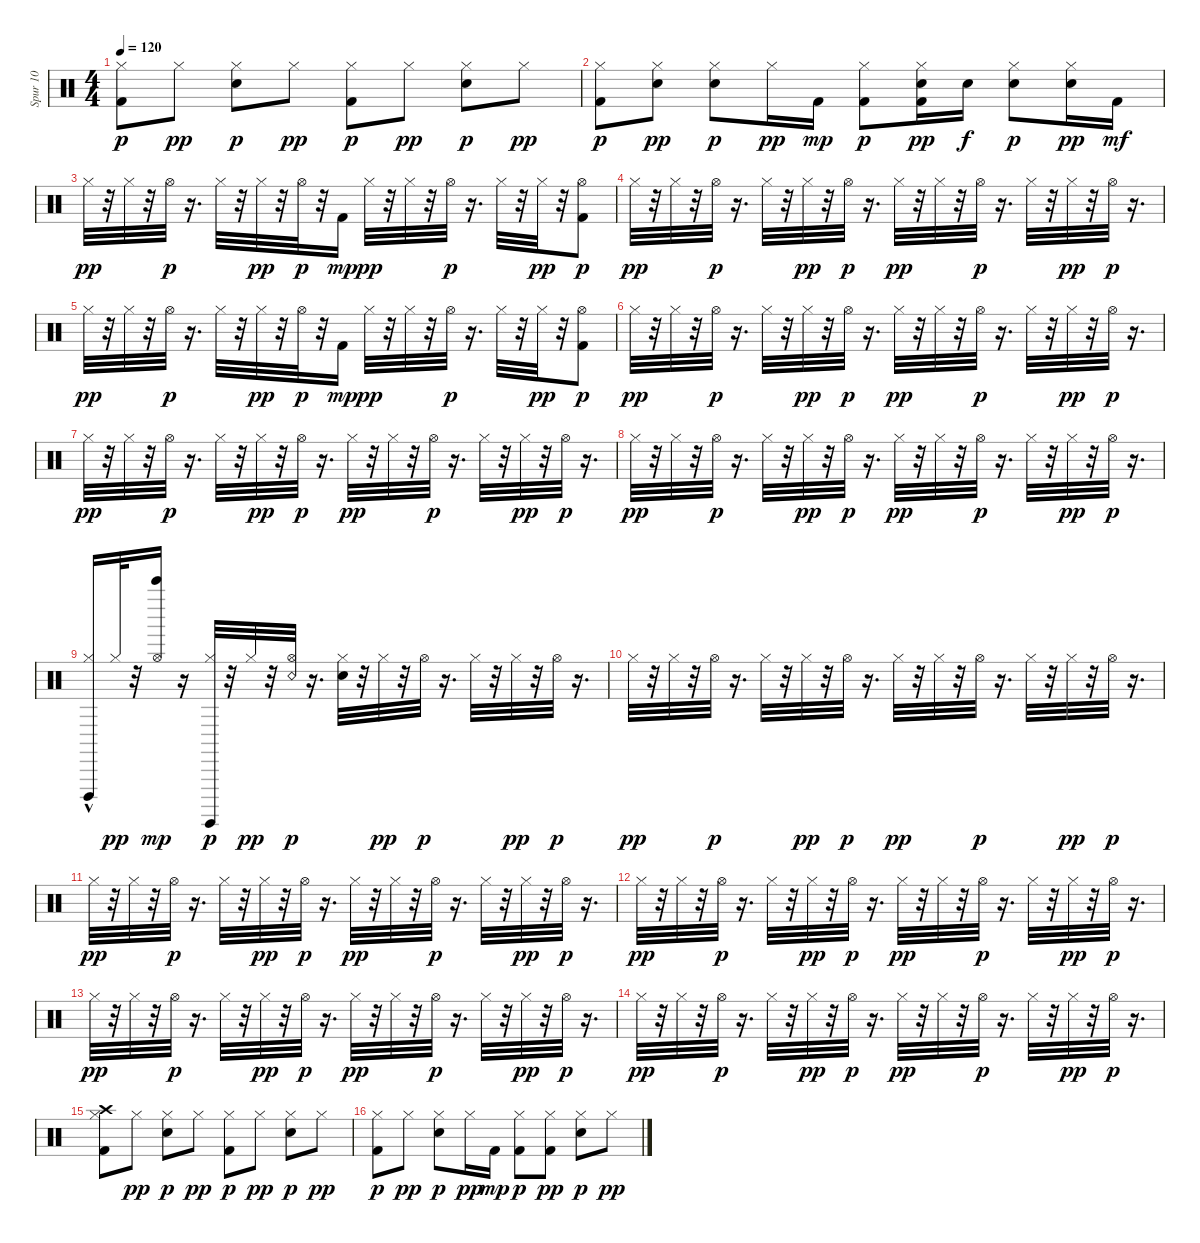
\track ("Spur 10" "Spur 10") {instrument percussion}
\staff {score}
\articulation defaults
\ts (4 4)
\tempo 120
\clef neutral
\ks c
("Kick (hit) 2" "Hi-Hat (closed)").8{dy p} "Hi-Hat (closed)".8{dy pp} ("Snare (hit) 2" "Hi-Hat (closed)").8{dy p} "Hi-Hat (closed)".8{dy pp} ("Kick (hit) 2" "Hi-Hat (closed)").8{dy p} "Hi-Hat (closed)".8{dy pp} ("Snare (hit) 2" "Hi-Hat (closed)").8{dy p} "Hi-Hat (closed)".8{dy pp} |
("Kick (hit) 2" "Hi-Hat (closed)").8{dy p} ("Snare (hit) 2" "Hi-Hat (closed)").8{dy pp} ("Snare (hit) 2" "Hi-Hat (closed)").8{dy p} "Hi-Hat (closed)".16{dy pp} "Kick (hit) 2".16{dy mp} ("Kick (hit) 2" "Hi-Hat (closed)").8{dy p} ("Kick (hit) 2" "Snare (hit) 2" "Hi-Hat (closed)").16{dy pp} "Snare (hit) 2".16{dy f} ("Snare (hit) 2" "Hi-Hat (closed)").8{dy p} ("Snare (hit) 2" "Hi-Hat (closed)").16{dy pp} "Kick (hit) 2".16{dy mf} |
"Hi-Hat (closed)".32{dy pp} r.32 "Hi-Hat (closed)".32 r.32 "Hi-Hat (open)".32{dy p} r.16{d} "Hi-Hat (closed)".32 r.32 "Hi-Hat (closed)".32{dy pp} r.32 "Hi-Hat (open)".32{dy p} r.32 "Kick (hit) 2".16{dy mp} "Hi-Hat (closed)".32{dy pp} r.32 "Hi-Hat (closed)".32 r.32 "Hi-Hat (open)".32{dy p} r.16{d} "Hi-Hat (closed)".32 r.32 "Hi-Hat (closed)".32{dy pp} r.32 ("Kick (hit) 2" "Hi-Hat (open)").8{dy p} |
"Hi-Hat (closed)".32{dy pp} r.32 "Hi-Hat (closed)".32 r.32 "Hi-Hat (open)".32{dy p} r.16{d} "Hi-Hat (closed)".32 r.32 "Hi-Hat (closed)".32{dy pp} r.32 "Hi-Hat (open)".32{dy p} r.16{d} "Hi-Hat (closed)".32{dy pp} r.32 "Hi-Hat (closed)".32 r.32 "Hi-Hat (open)".32{dy p} r.16{d} "Hi-Hat (closed)".32 r.32 "Hi-Hat (closed)".32{dy pp} r.32 "Hi-Hat (open)".32{dy p} r.16{d} |
"Hi-Hat (closed)".32{dy pp} r.32 "Hi-Hat (closed)".32 r.32 "Hi-Hat (open)".32{dy p} r.16{d} "Hi-Hat (closed)".32 r.32 "Hi-Hat (closed)".32{dy pp} r.32 "Hi-Hat (open)".32{dy p} r.32 "Kick (hit) 2".16{dy mp} "Hi-Hat (closed)".32{dy pp} r.32 "Hi-Hat (closed)".32 r.32 "Hi-Hat (open)".32{dy p} r.16{d} "Hi-Hat (closed)".32 r.32 "Hi-Hat (closed)".32{dy pp} r.32 ("Kick (hit) 2" "Hi-Hat (open)").8{dy p} |
"Hi-Hat (closed)".32{dy pp} r.32 "Hi-Hat (closed)".32 r.32 "Hi-Hat (open)".32{dy p} r.16{d} "Hi-Hat (closed)".32 r.32 "Hi-Hat (closed)".32{dy pp} r.32 "Hi-Hat (open)".32{dy p} r.16{d} "Hi-Hat (closed)".32{dy pp} r.32 "Hi-Hat (closed)".32 r.32 "Hi-Hat (open)".32{dy p} r.16{d} "Hi-Hat (closed)".32 r.32 "Hi-Hat (closed)".32{dy pp} r.32 "Hi-Hat (open)".32{dy p} r.16{d} |
"Hi-Hat (closed)".32{dy pp} r.32 "Hi-Hat (closed)".32 r.32 "Hi-Hat (open)".32{dy p} r.16{d} "Hi-Hat (closed)".32 r.32 "Hi-Hat (closed)".32{dy pp} r.32 "Hi-Hat (open)".32{dy p} r.16{d} "Hi-Hat (closed)".32{dy pp} r.32 "Hi-Hat (closed)".32 r.32 "Hi-Hat (open)".32{dy p} r.16{d} "Hi-Hat (closed)".32 r.32 "Hi-Hat (closed)".32{dy pp} r.32 "Hi-Hat (open)".32{dy p} r.16{d} |
"Hi-Hat (closed)".32{dy pp} r.32 "Hi-Hat (closed)".32 r.32 "Hi-Hat (open)".32{dy p} r.16{d} "Hi-Hat (closed)".32 r.32 "Hi-Hat (closed)".32{dy pp} r.32 "Hi-Hat (open)".32{dy p} r.16{d} "Hi-Hat (closed)".32{dy pp} r.32 "Hi-Hat (closed)".32 r.32 "Hi-Hat (open)".32{dy p} r.16{d} "Hi-Hat (closed)".32 r.32 "Hi-Hat (closed)".32{dy pp} r.32 "Hi-Hat (open)".32{dy p} r.16{d} |
("Hi-Hat (closed)" "Cuica (open)"{hac}).16 "Hi-Hat (closed)".32{dy pp} r.32 ("Hi-Hat (open)" "Bell Tree (hit)").16{dy mp} r.16 ("Hi-Hat (closed)" "Surdo (hit)").32{dy p} r.32 "Hi-Hat (closed)".32{dy pp} r.32 ("Hi-Hat (open)" "Snare (rim shot)").32{dy p} r.16{d} ("Hi-Hat (closed)" "Snare (hit)").32 r.32 "Hi-Hat (closed)".32{dy pp} r.32 "Hi-Hat (open)".32{dy p} r.16{d} "Hi-Hat (closed)".32 r.32 "Hi-Hat (closed)".32{dy pp} r.32 "Hi-Hat (open)".32{dy p} r.16{d} |
"Hi-Hat (closed)".32{dy pp} r.32 "Hi-Hat (closed)".32 r.32 "Hi-Hat (open)".32{dy p} r.16{d} "Hi-Hat (closed)".32 r.32 "Hi-Hat (closed)".32{dy pp} r.32 "Hi-Hat (open)".32{dy p} r.16{d} "Hi-Hat (closed)".32{dy pp} r.32 "Hi-Hat (closed)".32 r.32 "Hi-Hat (open)".32{dy p} r.16{d} "Hi-Hat (closed)".32 r.32 "Hi-Hat (closed)".32{dy pp} r.32 "Hi-Hat (open)".32{dy p} r.16{d} |
"Hi-Hat (closed)".32{dy pp} r.32 "Hi-Hat (closed)".32 r.32 "Hi-Hat (open)".32{dy p} r.16{d} "Hi-Hat (closed)".32 r.32 "Hi-Hat (closed)".32{dy pp} r.32 "Hi-Hat (open)".32{dy p} r.16{d} "Hi-Hat (closed)".32{dy pp} r.32 "Hi-Hat (closed)".32 r.32 "Hi-Hat (open)".32{dy p} r.16{d} "Hi-Hat (closed)".32 r.32 "Hi-Hat (closed)".32{dy pp} r.32 "Hi-Hat (open)".32{dy p} r.16{d} |
"Hi-Hat (closed)".32{dy pp} r.32 "Hi-Hat (closed)".32 r.32 "Hi-Hat (open)".32{dy p} r.16{d} "Hi-Hat (closed)".32 r.32 "Hi-Hat (closed)".32{dy pp} r.32 "Hi-Hat (open)".32{dy p} r.16{d} "Hi-Hat (closed)".32{dy pp} r.32 "Hi-Hat (closed)".32 r.32 "Hi-Hat (open)".32{dy p} r.16{d} "Hi-Hat (closed)".32 r.32 "Hi-Hat (closed)".32{dy pp} r.32 "Hi-Hat (open)".32{dy p} r.16{d} |
"Hi-Hat (closed)".32{dy pp} r.32 "Hi-Hat (closed)".32 r.32 "Hi-Hat (open)".32{dy p} r.16{d} "Hi-Hat (closed)".32 r.32 "Hi-Hat (closed)".32{dy pp} r.32 "Hi-Hat (open)".32{dy p} r.16{d} "Hi-Hat (closed)".32{dy pp} r.32 "Hi-Hat (closed)".32 r.32 "Hi-Hat (open)".32{dy p} r.16{d} "Hi-Hat (closed)".32 r.32 "Hi-Hat (closed)".32{dy pp} r.32 "Hi-Hat (open)".32{dy p} r.16{d} |
"Hi-Hat (closed)".32{dy pp} r.32 "Hi-Hat (closed)".32 r.32 "Hi-Hat (open)".32{dy p} r.16{d} "Hi-Hat (closed)".32 r.32 "Hi-Hat (closed)".32{dy pp} r.32 "Hi-Hat (open)".32{dy p} r.16{d} "Hi-Hat (closed)".32{dy pp} r.32 "Hi-Hat (closed)".32 r.32 "Hi-Hat (open)".32{dy p} r.16{d} "Hi-Hat (closed)".32 r.32 "Hi-Hat (closed)".32{dy pp} r.32 "Hi-Hat (open)".32{dy p} r.16{d} |
("Kick (hit) 2" "Hi-Hat (closed)" "Crash high (hit)").8 "Hi-Hat (closed)".8{dy pp} ("Snare (hit) 2" "Hi-Hat (closed)").8{dy p} "Hi-Hat (closed)".8{dy pp} ("Kick (hit) 2" "Hi-Hat (closed)").8{dy p} "Hi-Hat (closed)".8{dy pp} ("Snare (hit) 2" "Hi-Hat (closed)").8{dy p} "Hi-Hat (closed)".8{dy pp} |
("Kick (hit) 2" "Hi-Hat (closed)").8{dy p} "Hi-Hat (closed)".8{dy pp} ("Snare (hit) 2" "Hi-Hat (closed)").8{dy p} "Hi-Hat (closed)".16{dy pp} "Kick (hit) 2".16{dy mp} ("Kick (hit) 2" "Hi-Hat (closed)").8{dy p} ("Kick (hit) 2" "Hi-Hat (closed)").8{dy pp} ("Snare (hit) 2" "Hi-Hat (closed)").8{dy p} "Hi-Hat (closed)".8{dy pp}
